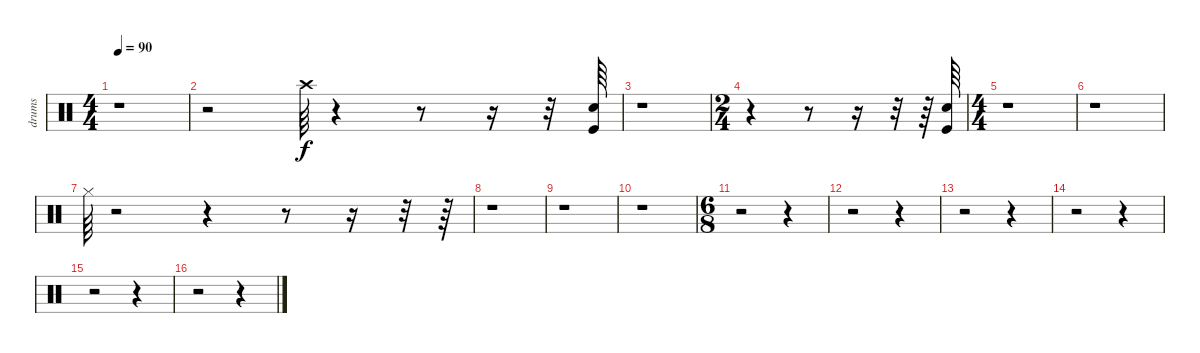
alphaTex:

\track ("drums" "drums") {instrument percussion}
\staff {score}
\articulation defaults
\ts (4 4)
\tempo 90
\clef neutral
\ks c
r.1{dy f} |
r.2 "Crash high (hit)".64 r.4 r.8 r.16 r.32 ("Kick (hit)" "Snare (hit) 2").64 |
r.1 |
\ts (2 4)
r.4 r.8 r.16 r.32 r.64 ("Kick (hit)" "Snare (hit) 2").64 |
\ts (4 4)
r.1 |
r.1 |
"Hi-Hat (closed)".64 r.2 r.4 r.8 r.16 r.32 r.64 |
r.1 |
r.1 |
r.1 |
\ts (6 8)
r.2 r.4 |
r.2 r.4 |
r.2 r.4 |
r.2 r.4 |
r.2 r.4 |
r.2 r.4
